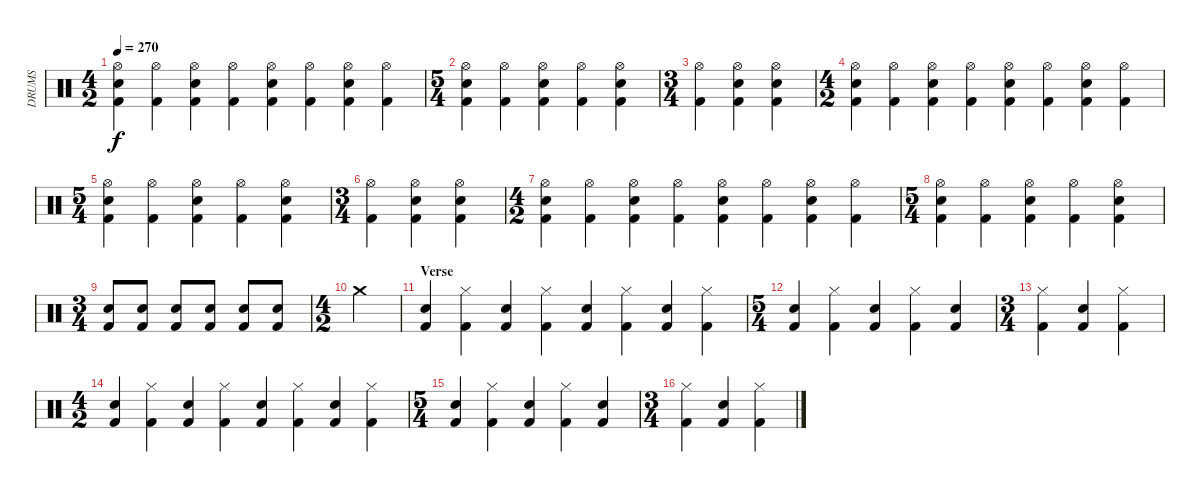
\track ("DRUMS" "DRUMS") {instrument percussion}
\staff {score}
\articulation defaults
\ts (4 2)
\tempo 270
\clef neutral
\ks c
("Hi-Hat (open)" "Snare (hit) 2" "Kick (hit) 2").4{dy f} ("Hi-Hat (open)" "Kick (hit) 2").4 ("Hi-Hat (open)" "Snare (hit) 2" "Kick (hit) 2").4 ("Hi-Hat (open)" "Kick (hit) 2").4 ("Hi-Hat (open)" "Snare (hit) 2" "Kick (hit) 2").4 ("Hi-Hat (open)" "Kick (hit) 2").4 ("Hi-Hat (open)" "Snare (hit) 2" "Kick (hit) 2").4 ("Hi-Hat (open)" "Kick (hit) 2").4 |
\ts (5 4)
("Hi-Hat (open)" "Snare (hit) 2" "Kick (hit) 2").4 ("Hi-Hat (open)" "Kick (hit) 2").4 ("Hi-Hat (open)" "Snare (hit) 2" "Kick (hit) 2").4 ("Hi-Hat (open)" "Kick (hit) 2").4 ("Hi-Hat (open)" "Snare (hit) 2" "Kick (hit) 2").4 |
\ts (3 4)
("Hi-Hat (open)" "Kick (hit) 2").4 ("Hi-Hat (open)" "Snare (hit) 2" "Kick (hit) 2").4 ("Hi-Hat (open)" "Snare (hit) 2" "Kick (hit) 2").4 |
\ts (4 2)
("Hi-Hat (open)" "Snare (hit) 2" "Kick (hit) 2").4 ("Hi-Hat (open)" "Kick (hit) 2").4 ("Hi-Hat (open)" "Snare (hit) 2" "Kick (hit) 2").4 ("Hi-Hat (open)" "Kick (hit) 2").4 ("Hi-Hat (open)" "Snare (hit) 2" "Kick (hit) 2").4 ("Hi-Hat (open)" "Kick (hit) 2").4 ("Hi-Hat (open)" "Snare (hit) 2" "Kick (hit) 2").4 ("Hi-Hat (open)" "Kick (hit) 2").4 |
\ts (5 4)
("Hi-Hat (open)" "Snare (hit) 2" "Kick (hit) 2").4 ("Hi-Hat (open)" "Kick (hit) 2").4 ("Hi-Hat (open)" "Snare (hit) 2" "Kick (hit) 2").4 ("Hi-Hat (open)" "Kick (hit) 2").4 ("Hi-Hat (open)" "Snare (hit) 2" "Kick (hit) 2").4 |
\ts (3 4)
("Hi-Hat (open)" "Kick (hit) 2").4 ("Hi-Hat (open)" "Snare (hit) 2" "Kick (hit) 2").4 ("Hi-Hat (open)" "Snare (hit) 2" "Kick (hit) 2").4 |
\ts (4 2)
("Hi-Hat (open)" "Snare (hit) 2" "Kick (hit) 2").4 ("Hi-Hat (open)" "Kick (hit) 2").4 ("Hi-Hat (open)" "Snare (hit) 2" "Kick (hit) 2").4 ("Hi-Hat (open)" "Kick (hit) 2").4 ("Hi-Hat (open)" "Snare (hit) 2" "Kick (hit) 2").4 ("Hi-Hat (open)" "Kick (hit) 2").4 ("Hi-Hat (open)" "Snare (hit) 2" "Kick (hit) 2").4 ("Hi-Hat (open)" "Kick (hit) 2").4 |
\ts (5 4)
("Hi-Hat (open)" "Snare (hit) 2" "Kick (hit) 2").4 ("Hi-Hat (open)" "Kick (hit) 2").4 ("Hi-Hat (open)" "Snare (hit) 2" "Kick (hit) 2").4 ("Hi-Hat (open)" "Kick (hit) 2").4 ("Hi-Hat (open)" "Snare (hit) 2" "Kick (hit) 2").4 |
\ts (3 4)
("Snare (hit) 2" "Kick (hit) 2").8 ("Snare (hit) 2" "Kick (hit) 2").8 ("Snare (hit) 2" "Kick (hit) 2").8 ("Snare (hit) 2" "Kick (hit) 2").8 ("Snare (hit) 2" "Kick (hit) 2").8 ("Snare (hit) 2" "Kick (hit) 2").8 |
\ts (4 2)
"Crash medium (hit)".4 |
\section ("" "Verse")
("Snare (hit) 2" "Kick (hit) 2").4 ("Hi-Hat (closed)" "Kick (hit) 2").4 ("Snare (hit) 2" "Kick (hit) 2").4 ("Hi-Hat (closed)" "Kick (hit) 2").4 ("Snare (hit) 2" "Kick (hit) 2").4 ("Hi-Hat (closed)" "Kick (hit) 2").4 ("Snare (hit) 2" "Kick (hit) 2").4 ("Hi-Hat (closed)" "Kick (hit) 2").4 |
\ts (5 4)
("Snare (hit) 2" "Kick (hit) 2").4 ("Hi-Hat (closed)" "Kick (hit) 2").4 ("Snare (hit) 2" "Kick (hit) 2").4 ("Hi-Hat (closed)" "Kick (hit) 2").4 ("Snare (hit) 2" "Kick (hit) 2").4 |
\ts (3 4)
("Hi-Hat (closed)" "Kick (hit) 2").4 ("Snare (hit) 2" "Kick (hit) 2").4 ("Hi-Hat (closed)" "Kick (hit) 2").4 |
\ts (4 2)
("Snare (hit) 2" "Kick (hit) 2").4 ("Hi-Hat (closed)" "Kick (hit) 2").4 ("Snare (hit) 2" "Kick (hit) 2").4 ("Hi-Hat (closed)" "Kick (hit) 2").4 ("Snare (hit) 2" "Kick (hit) 2").4 ("Hi-Hat (closed)" "Kick (hit) 2").4 ("Snare (hit) 2" "Kick (hit) 2").4 ("Hi-Hat (closed)" "Kick (hit) 2").4 |
\ts (5 4)
("Snare (hit) 2" "Kick (hit) 2").4 ("Hi-Hat (closed)" "Kick (hit) 2").4 ("Snare (hit) 2" "Kick (hit) 2").4 ("Hi-Hat (closed)" "Kick (hit) 2").4 ("Snare (hit) 2" "Kick (hit) 2").4 |
\ts (3 4)
("Hi-Hat (closed)" "Kick (hit) 2").4 ("Snare (hit) 2" "Kick (hit) 2").4 ("Hi-Hat (closed)" "Kick (hit) 2").4
